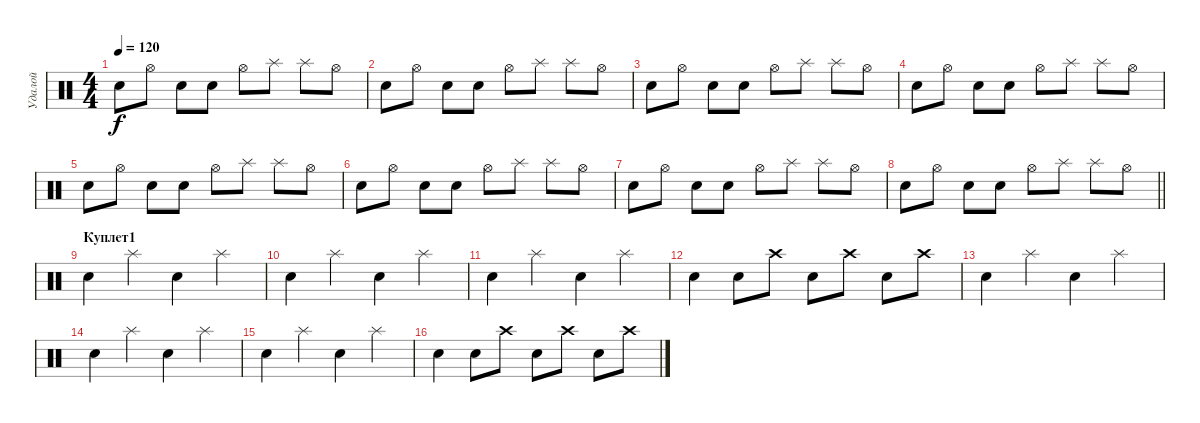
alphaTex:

\track ("Удалой" "Удалой") {instrument percussion}
\staff {score}
\articulation defaults
\ts (4 4)
\tempo 120
\clef neutral
\ks c "Snare (hit) 2".8{dy f} "Hi-Hat (open)".8 "Snare (hit) 2".8 "Snare (hit) 2".8 "Hi-Hat (open)".8 "Splash (hit)".8 "Splash (hit)".8 "Hi-Hat (open)".8
|
"Snare (hit) 2".8 "Hi-Hat (open)".8 "Snare (hit) 2".8 "Snare (hit) 2".8 "Hi-Hat (open)".8 "Splash (hit)".8 "Splash (hit)".8 "Hi-Hat (open)".8 |
"Snare (hit) 2".8 "Hi-Hat (open)".8 "Snare (hit) 2".8 "Snare (hit) 2".8 "Hi-Hat (open)".8 "Splash (hit)".8 "Splash (hit)".8 "Hi-Hat (open)".8 |
"Snare (hit) 2".8 "Hi-Hat (open)".8 "Snare (hit) 2".8 "Snare (hit) 2".8 "Hi-Hat (open)".8 "Splash (hit)".8 "Splash (hit)".8 "Hi-Hat (open)".8 |
"Snare (hit) 2".8 "Hi-Hat (open)".8 "Snare (hit) 2".8 "Snare (hit) 2".8 "Hi-Hat (open)".8 "Splash (hit)".8 "Splash (hit)".8 "Hi-Hat (open)".8 |
"Snare (hit) 2".8 "Hi-Hat (open)".8 "Snare (hit) 2".8 "Snare (hit) 2".8 "Hi-Hat (open)".8 "Splash (hit)".8 "Splash (hit)".8 "Hi-Hat (open)".8 |
"Snare (hit) 2".8 "Hi-Hat (open)".8 "Snare (hit) 2".8 "Snare (hit) 2".8 "Hi-Hat (open)".8 "Splash (hit)".8 "Splash (hit)".8 "Hi-Hat (open)".8 |
\barLineRight lightlight "Snare (hit) 2".8 "Hi-Hat (open)".8 "Snare (hit) 2".8 "Snare (hit) 2".8 "Hi-Hat (open)".8 "Splash (hit)".8 "Splash (hit)".8 "Hi-Hat (open)".8
|
\section ("" "Куплет1")
"Snare (hit) 2".4 "Splash (hit)".4 "Snare (hit) 2".4 "Splash (hit)".4 |
"Snare (hit) 2".4 "Splash (hit)".4 "Snare (hit) 2".4 "Splash (hit)".4 |
"Snare (hit) 2".4 "Splash (hit)".4 "Snare (hit) 2".4 "Splash (hit)".4 |
"Snare (hit) 2".4 "Snare (hit) 2".8 "Crash high (hit)".8 "Snare (hit) 2".8 "Crash high (hit)".8 "Snare (hit) 2".8 "Crash high (hit)".8 |
"Snare (hit) 2".4 "Splash (hit)".4 "Snare (hit) 2".4 "Splash (hit)".4 |
"Snare (hit) 2".4 "Splash (hit)".4 "Snare (hit) 2".4 "Splash (hit)".4 |
"Snare (hit) 2".4 "Splash (hit)".4 "Snare (hit) 2".4 "Splash (hit)".4 |
"Snare (hit) 2".4 "Snare (hit) 2".8 "Crash high (hit)".8 "Snare (hit) 2".8 "Crash high (hit)".8 "Snare (hit) 2".8 "Crash high (hit)".8
